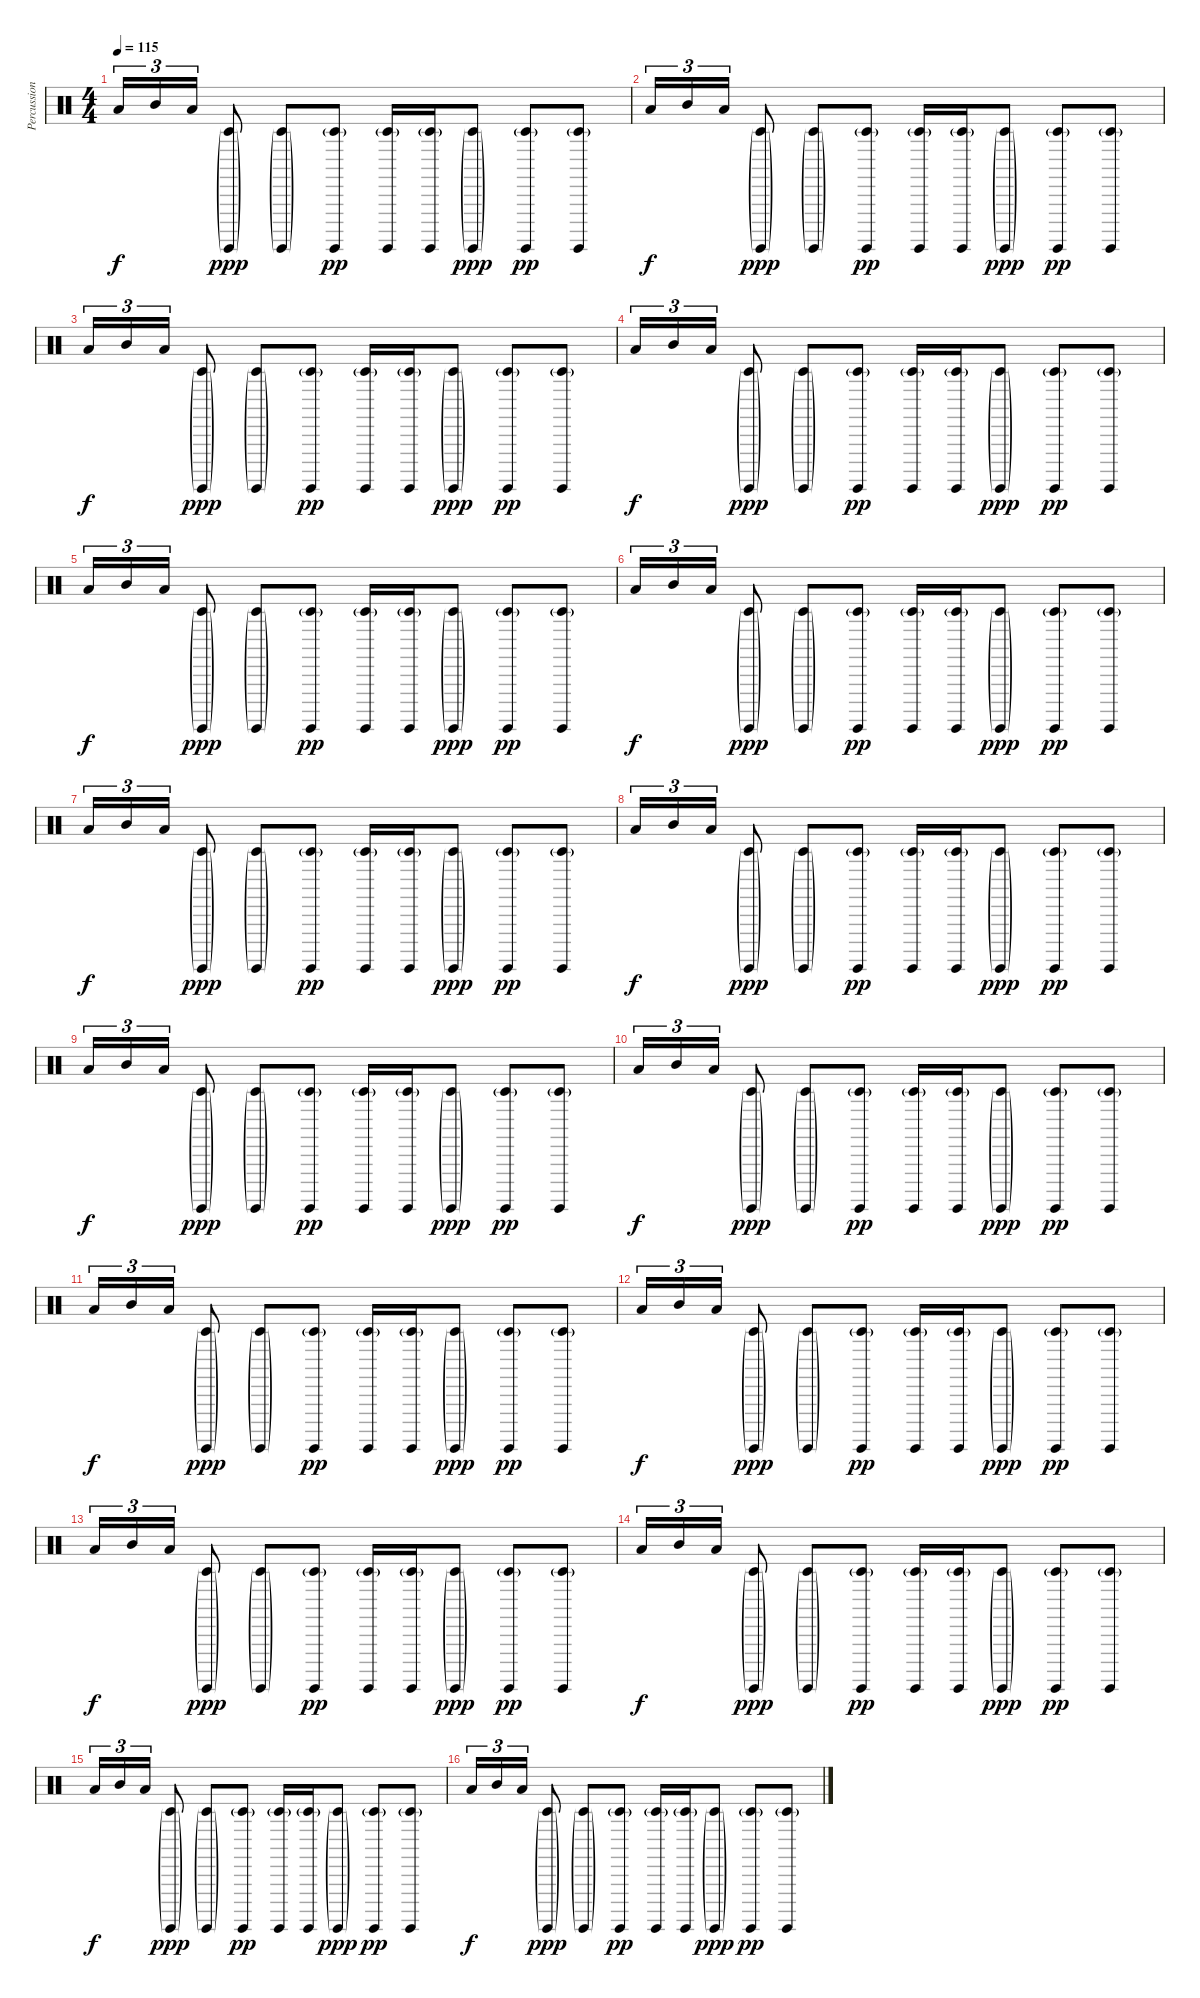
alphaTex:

\track ("Percussion - Low Tom" "Percussion") {instrument percussion}
\staff {score}
\articulation defaults
\ts (4 4)
\tempo 115
\clef neutral
\ks c "Low Tom (hit)".16{tu (3 2) dy f} "Mid Tom (hit)".16{tu (3 2)} "Low Tom (hit)".16{tu (3 2)}
("Timbale low (hit)"{g} "Surdo (hit)"{g}).8{dy ppp} ("Timbale low (hit)"{g} "Surdo (hit)"{g}).8 ("Timbale low (hit)"{g} "Surdo (hit)").8{dy pp} ("Timbale low (hit)"{g} "Surdo (hit)").16 ("Timbale low (hit)"{g} "Surdo (hit)").16 ("Timbale low (hit)"{g} "Surdo (hit)"{g}).8{dy ppp} ("Timbale low (hit)"{g} "Surdo (hit)").8{dy pp} ("Timbale low (hit)"{g} "Surdo (hit)").8 |
"Low Tom (hit)".16{tu (3 2) dy f} "Mid Tom (hit)".16{tu (3 2)} "Low Tom (hit)".16{tu (3 2)} ("Timbale low (hit)"{g} "Surdo (hit)"{g}).8{dy ppp} ("Timbale low (hit)"{g} "Surdo (hit)"{g}).8 ("Timbale low (hit)"{g} "Surdo (hit)").8{dy pp} ("Timbale low (hit)"{g} "Surdo (hit)").16 ("Timbale low (hit)"{g} "Surdo (hit)").16 ("Timbale low (hit)"{g} "Surdo (hit)"{g}).8{dy ppp} ("Timbale low (hit)"{g} "Surdo (hit)").8{dy pp} ("Timbale low (hit)"{g} "Surdo (hit)").8 |
"Low Tom (hit)".16{tu (3 2) dy f} "Mid Tom (hit)".16{tu (3 2)} "Low Tom (hit)".16{tu (3 2)} ("Timbale low (hit)"{g} "Surdo (hit)"{g}).8{dy ppp} ("Timbale low (hit)"{g} "Surdo (hit)"{g}).8 ("Timbale low (hit)"{g} "Surdo (hit)").8{dy pp} ("Timbale low (hit)"{g} "Surdo (hit)").16 ("Timbale low (hit)"{g} "Surdo (hit)").16 ("Timbale low (hit)"{g} "Surdo (hit)"{g}).8{dy ppp} ("Timbale low (hit)"{g} "Surdo (hit)").8{dy pp} ("Timbale low (hit)"{g} "Surdo (hit)").8 |
"Low Tom (hit)".16{tu (3 2) dy f} "Mid Tom (hit)".16{tu (3 2)} "Low Tom (hit)".16{tu (3 2)} ("Timbale low (hit)"{g} "Surdo (hit)"{g}).8{dy ppp} ("Timbale low (hit)"{g} "Surdo (hit)"{g}).8 ("Timbale low (hit)"{g} "Surdo (hit)").8{dy pp} ("Timbale low (hit)"{g} "Surdo (hit)").16 ("Timbale low (hit)"{g} "Surdo (hit)").16 ("Timbale low (hit)"{g} "Surdo (hit)"{g}).8{dy ppp} ("Timbale low (hit)"{g} "Surdo (hit)").8{dy pp} ("Timbale low (hit)"{g} "Surdo (hit)").8 |
"Low Tom (hit)".16{tu (3 2) dy f} "Mid Tom (hit)".16{tu (3 2)} "Low Tom (hit)".16{tu (3 2)} ("Timbale low (hit)"{g} "Surdo (hit)"{g}).8{dy ppp} ("Timbale low (hit)"{g} "Surdo (hit)"{g}).8 ("Timbale low (hit)"{g} "Surdo (hit)").8{dy pp} ("Timbale low (hit)"{g} "Surdo (hit)").16 ("Timbale low (hit)"{g} "Surdo (hit)").16 ("Timbale low (hit)"{g} "Surdo (hit)"{g}).8{dy ppp} ("Timbale low (hit)"{g} "Surdo (hit)").8{dy pp} ("Timbale low (hit)"{g} "Surdo (hit)").8 |
"Low Tom (hit)".16{tu (3 2) dy f} "Mid Tom (hit)".16{tu (3 2)} "Low Tom (hit)".16{tu (3 2)} ("Timbale low (hit)"{g} "Surdo (hit)"{g}).8{dy ppp} ("Timbale low (hit)"{g} "Surdo (hit)"{g}).8 ("Timbale low (hit)"{g} "Surdo (hit)").8{dy pp} ("Timbale low (hit)"{g} "Surdo (hit)").16 ("Timbale low (hit)"{g} "Surdo (hit)").16 ("Timbale low (hit)"{g} "Surdo (hit)"{g}).8{dy ppp} ("Timbale low (hit)"{g} "Surdo (hit)").8{dy pp} ("Timbale low (hit)"{g} "Surdo (hit)").8 |
"Low Tom (hit)".16{tu (3 2) dy f} "Mid Tom (hit)".16{tu (3 2)} "Low Tom (hit)".16{tu (3 2)} ("Timbale low (hit)"{g} "Surdo (hit)"{g}).8{dy ppp} ("Timbale low (hit)"{g} "Surdo (hit)"{g}).8 ("Timbale low (hit)"{g} "Surdo (hit)").8{dy pp} ("Timbale low (hit)"{g} "Surdo (hit)").16 ("Timbale low (hit)"{g} "Surdo (hit)").16 ("Timbale low (hit)"{g} "Surdo (hit)"{g}).8{dy ppp} ("Timbale low (hit)"{g} "Surdo (hit)").8{dy pp} ("Timbale low (hit)"{g} "Surdo (hit)").8 |
"Low Tom (hit)".16{tu (3 2) dy f} "Mid Tom (hit)".16{tu (3 2)} "Low Tom (hit)".16{tu (3 2)} ("Timbale low (hit)"{g} "Surdo (hit)"{g}).8{dy ppp} ("Timbale low (hit)"{g} "Surdo (hit)"{g}).8 ("Timbale low (hit)"{g} "Surdo (hit)").8{dy pp} ("Timbale low (hit)"{g} "Surdo (hit)").16 ("Timbale low (hit)"{g} "Surdo (hit)").16 ("Timbale low (hit)"{g} "Surdo (hit)"{g}).8{dy ppp} ("Timbale low (hit)"{g} "Surdo (hit)").8{dy pp} ("Timbale low (hit)"{g} "Surdo (hit)").8 |
"Low Tom (hit)".16{tu (3 2) dy f} "Mid Tom (hit)".16{tu (3 2)} "Low Tom (hit)".16{tu (3 2)} ("Timbale low (hit)"{g} "Surdo (hit)"{g}).8{dy ppp} ("Timbale low (hit)"{g} "Surdo (hit)"{g}).8 ("Timbale low (hit)"{g} "Surdo (hit)").8{dy pp} ("Timbale low (hit)"{g} "Surdo (hit)").16 ("Timbale low (hit)"{g} "Surdo (hit)").16 ("Timbale low (hit)"{g} "Surdo (hit)"{g}).8{dy ppp} ("Timbale low (hit)"{g} "Surdo (hit)").8{dy pp} ("Timbale low (hit)"{g} "Surdo (hit)").8 |
"Low Tom (hit)".16{tu (3 2) dy f} "Mid Tom (hit)".16{tu (3 2)} "Low Tom (hit)".16{tu (3 2)} ("Timbale low (hit)"{g} "Surdo (hit)"{g}).8{dy ppp} ("Timbale low (hit)"{g} "Surdo (hit)"{g}).8 ("Timbale low (hit)"{g} "Surdo (hit)").8{dy pp} ("Timbale low (hit)"{g} "Surdo (hit)").16 ("Timbale low (hit)"{g} "Surdo (hit)").16 ("Timbale low (hit)"{g} "Surdo (hit)"{g}).8{dy ppp} ("Timbale low (hit)"{g} "Surdo (hit)").8{dy pp} ("Timbale low (hit)"{g} "Surdo (hit)").8 |
"Low Tom (hit)".16{tu (3 2) dy f} "Mid Tom (hit)".16{tu (3 2)} "Low Tom (hit)".16{tu (3 2)} ("Timbale low (hit)"{g} "Surdo (hit)"{g}).8{dy ppp} ("Timbale low (hit)"{g} "Surdo (hit)"{g}).8 ("Timbale low (hit)"{g} "Surdo (hit)").8{dy pp} ("Timbale low (hit)"{g} "Surdo (hit)").16 ("Timbale low (hit)"{g} "Surdo (hit)").16 ("Timbale low (hit)"{g} "Surdo (hit)"{g}).8{dy ppp} ("Timbale low (hit)"{g} "Surdo (hit)").8{dy pp} ("Timbale low (hit)"{g} "Surdo (hit)").8 |
"Low Tom (hit)".16{tu (3 2) dy f} "Mid Tom (hit)".16{tu (3 2)} "Low Tom (hit)".16{tu (3 2)} ("Timbale low (hit)"{g} "Surdo (hit)"{g}).8{dy ppp} ("Timbale low (hit)"{g} "Surdo (hit)"{g}).8 ("Timbale low (hit)"{g} "Surdo (hit)").8{dy pp} ("Timbale low (hit)"{g} "Surdo (hit)").16 ("Timbale low (hit)"{g} "Surdo (hit)").16 ("Timbale low (hit)"{g} "Surdo (hit)"{g}).8{dy ppp} ("Timbale low (hit)"{g} "Surdo (hit)").8{dy pp} ("Timbale low (hit)"{g} "Surdo (hit)").8 |
"Low Tom (hit)".16{tu (3 2) dy f} "Mid Tom (hit)".16{tu (3 2)} "Low Tom (hit)".16{tu (3 2)} ("Timbale low (hit)"{g} "Surdo (hit)"{g}).8{dy ppp} ("Timbale low (hit)"{g} "Surdo (hit)"{g}).8 ("Timbale low (hit)"{g} "Surdo (hit)").8{dy pp} ("Timbale low (hit)"{g} "Surdo (hit)").16 ("Timbale low (hit)"{g} "Surdo (hit)").16 ("Timbale low (hit)"{g} "Surdo (hit)"{g}).8{dy ppp} ("Timbale low (hit)"{g} "Surdo (hit)").8{dy pp} ("Timbale low (hit)"{g} "Surdo (hit)").8 |
"Low Tom (hit)".16{tu (3 2) dy f} "Mid Tom (hit)".16{tu (3 2)} "Low Tom (hit)".16{tu (3 2)} ("Timbale low (hit)"{g} "Surdo (hit)"{g}).8{dy ppp} ("Timbale low (hit)"{g} "Surdo (hit)"{g}).8 ("Timbale low (hit)"{g} "Surdo (hit)").8{dy pp} ("Timbale low (hit)"{g} "Surdo (hit)").16 ("Timbale low (hit)"{g} "Surdo (hit)").16 ("Timbale low (hit)"{g} "Surdo (hit)"{g}).8{dy ppp} ("Timbale low (hit)"{g} "Surdo (hit)").8{dy pp} ("Timbale low (hit)"{g} "Surdo (hit)").8 |
"Low Tom (hit)".16{tu (3 2) dy f} "Mid Tom (hit)".16{tu (3 2)} "Low Tom (hit)".16{tu (3 2)} ("Timbale low (hit)"{g} "Surdo (hit)"{g}).8{dy ppp} ("Timbale low (hit)"{g} "Surdo (hit)"{g}).8 ("Timbale low (hit)"{g} "Surdo (hit)").8{dy pp} ("Timbale low (hit)"{g} "Surdo (hit)").16 ("Timbale low (hit)"{g} "Surdo (hit)").16 ("Timbale low (hit)"{g} "Surdo (hit)"{g}).8{dy ppp} ("Timbale low (hit)"{g} "Surdo (hit)").8{dy pp} ("Timbale low (hit)"{g} "Surdo (hit)").8 |
"Low Tom (hit)".16{tu (3 2) dy f} "Mid Tom (hit)".16{tu (3 2)} "Low Tom (hit)".16{tu (3 2)} ("Timbale low (hit)"{g} "Surdo (hit)"{g}).8{dy ppp} ("Timbale low (hit)"{g} "Surdo (hit)"{g}).8 ("Timbale low (hit)"{g} "Surdo (hit)").8{dy pp} ("Timbale low (hit)"{g} "Surdo (hit)").16 ("Timbale low (hit)"{g} "Surdo (hit)").16 ("Timbale low (hit)"{g} "Surdo (hit)"{g}).8{dy ppp} ("Timbale low (hit)"{g} "Surdo (hit)").8{dy pp} ("Timbale low (hit)"{g} "Surdo (hit)").8
